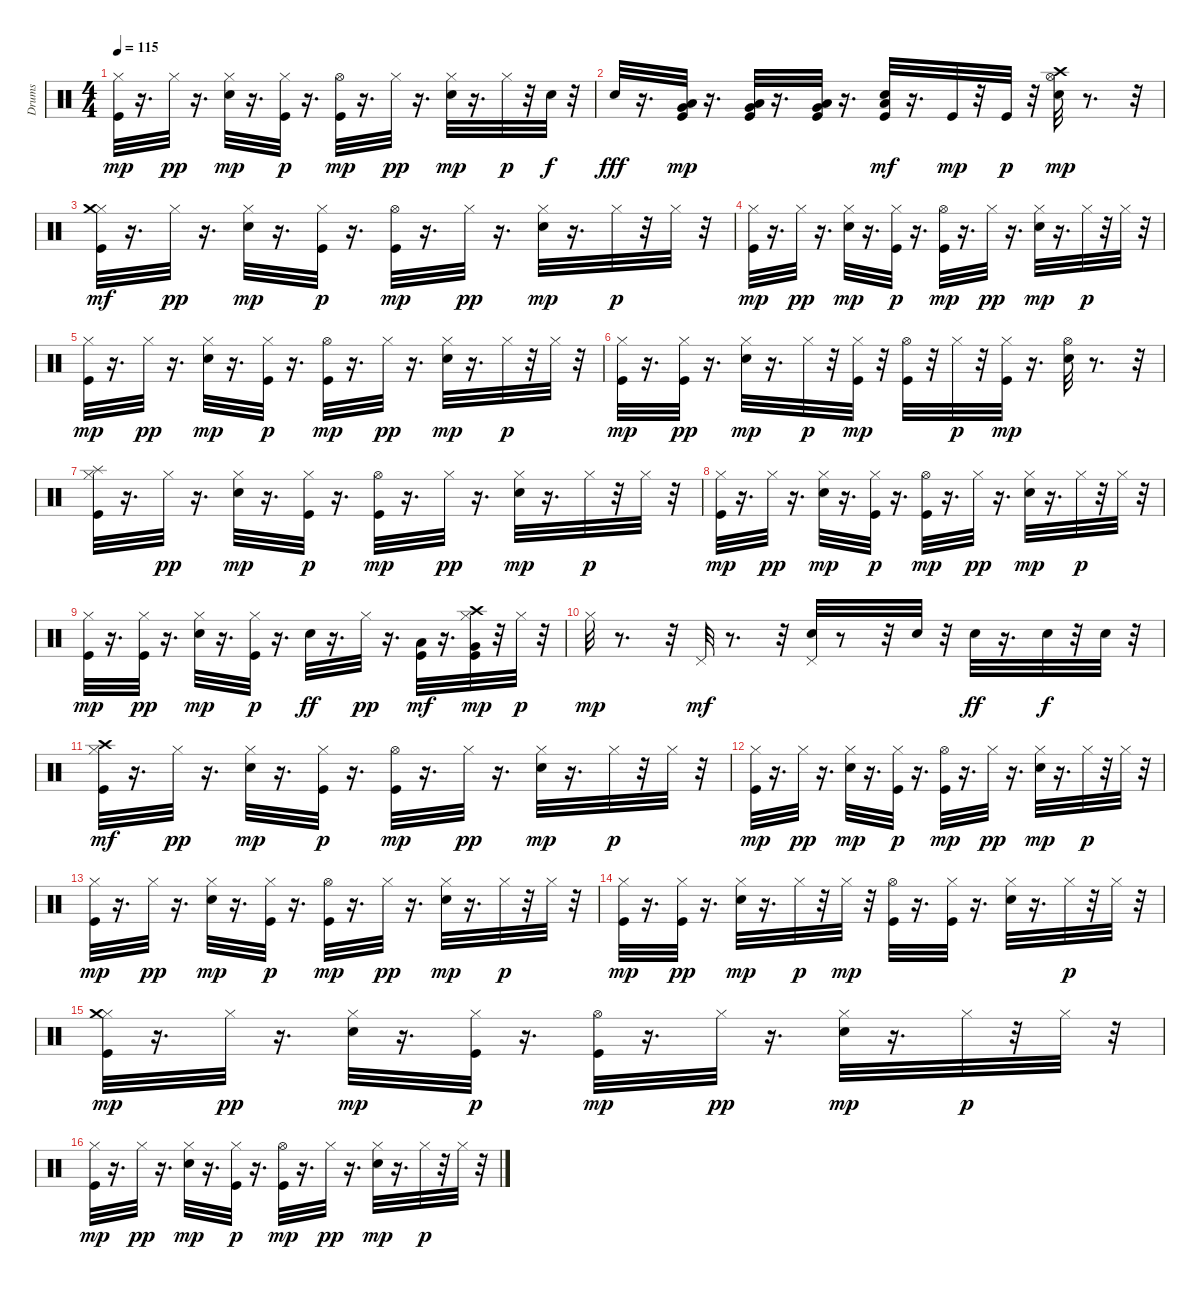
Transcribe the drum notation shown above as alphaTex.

\track ("Drums" "Drums") {instrument percussion}
\staff {score}
\articulation defaults
\ts (4 4)
\tempo 115
\clef neutral
\ks c
("Kick (hit)" "Hi-Hat (closed)").32{dy mp} r.16{d} "Hi-Hat (closed)".32{dy pp} r.16{d} ("Electric Snare (hit)" "Hi-Hat (closed)").32{dy mp} r.16{d} ("Kick (hit)" "Hi-Hat (closed)").32{dy p} r.16{d} ("Kick (hit)" "Hi-Hat (open)").32{dy mp} r.16{d} "Hi-Hat (closed)".32{dy pp} r.16{d} ("Electric Snare (hit)" "Hi-Hat (closed)").32{dy mp} r.16{d} "Hi-Hat (closed)".32{dy p} r.32 "Electric Snare (hit)".32{dy f} r.32 |
"Electric Snare (hit)".32{dy fff} r.16{d} ("Kick (hit)" "Very Low Tom (hit)" "Low Tom (hit)").32{dy mp} r.16{d} ("Kick (hit)" "Very Low Tom (hit)" "Low Tom (hit)").32 r.16{d} ("Kick (hit)" "Very Low Tom (hit)" "Low Tom (hit)").32 r.16{d} ("Kick (hit)" "Electric Snare (hit)" "Low Tom (hit)").32{dy mf} r.16{d} "Kick (hit)".32{dy mp} r.32 "Kick (hit)".32{dy p} r.32 ("Electric Snare (hit)" "Hi-Hat (open)" "Crash high (hit)").32{dy mp} r.8{d} r.32 |
("Kick (hit)" "Hi-Hat (closed)" "Crash medium (hit)").32{dy mf} r.16{d} "Hi-Hat (closed)".32{dy pp} r.16{d} ("Electric Snare (hit)" "Hi-Hat (closed)").32{dy mp} r.16{d} ("Kick (hit)" "Hi-Hat (closed)").32{dy p} r.16{d} ("Kick (hit)" "Hi-Hat (open)").32{dy mp} r.16{d} "Hi-Hat (closed)".32{dy pp} r.16{d} ("Electric Snare (hit)" "Hi-Hat (closed)").32{dy mp} r.16{d} "Hi-Hat (closed)".32{dy p} r.32 "Hi-Hat (closed)".32 r.32 |
("Kick (hit)" "Hi-Hat (closed)").32{dy mp} r.16{d} "Hi-Hat (closed)".32{dy pp} r.16{d} ("Electric Snare (hit)" "Hi-Hat (closed)").32{dy mp} r.16{d} ("Kick (hit)" "Hi-Hat (closed)").32{dy p} r.16{d} ("Kick (hit)" "Hi-Hat (open)").32{dy mp} r.16{d} "Hi-Hat (closed)".32{dy pp} r.16{d} ("Electric Snare (hit)" "Hi-Hat (closed)").32{dy mp} r.16{d} "Hi-Hat (closed)".32{dy p} r.32 "Hi-Hat (closed)".32 r.32 |
("Kick (hit)" "Hi-Hat (closed)").32{dy mp} r.16{d} "Hi-Hat (closed)".32{dy pp} r.16{d} ("Electric Snare (hit)" "Hi-Hat (closed)").32{dy mp} r.16{d} ("Kick (hit)" "Hi-Hat (closed)").32{dy p} r.16{d} ("Kick (hit)" "Hi-Hat (open)").32{dy mp} r.16{d} "Hi-Hat (closed)".32{dy pp} r.16{d} ("Electric Snare (hit)" "Hi-Hat (closed)").32{dy mp} r.16{d} "Hi-Hat (closed)".32{dy p} r.32 "Hi-Hat (closed)".32 r.32 |
("Kick (hit)" "Hi-Hat (closed)").32{dy mp} r.16{d} ("Kick (hit)" "Hi-Hat (closed)").32{dy pp} r.16{d} ("Electric Snare (hit)" "Hi-Hat (closed)").32{dy mp} r.16{d} "Hi-Hat (closed)".32{dy p} r.32 ("Kick (hit)" "Hi-Hat (closed)").32{dy mp} r.32 ("Kick (hit)" "Hi-Hat (open)").32 r.32 "Hi-Hat (closed)".32{dy p} r.32 ("Kick (hit)" "Hi-Hat (closed)").32{dy mp} r.16{d} ("Electric Snare (hit)" "Hi-Hat (open)").32 r.8{d} r.32 |
("Kick (hit)" "Hi-Hat (closed)" "Splash (hit)").32 r.16{d} "Hi-Hat (closed)".32{dy pp} r.16{d} ("Electric Snare (hit)" "Hi-Hat (closed)").32{dy mp} r.16{d} ("Kick (hit)" "Hi-Hat (closed)").32{dy p} r.16{d} ("Kick (hit)" "Hi-Hat (open)").32{dy mp} r.16{d} "Hi-Hat (closed)".32{dy pp} r.16{d} ("Electric Snare (hit)" "Hi-Hat (closed)").32{dy mp} r.16{d} "Hi-Hat (closed)".32{dy p} r.32 "Hi-Hat (closed)".32 r.32 |
("Kick (hit)" "Hi-Hat (closed)").32{dy mp} r.16{d} "Hi-Hat (closed)".32{dy pp} r.16{d} ("Electric Snare (hit)" "Hi-Hat (closed)").32{dy mp} r.16{d} ("Kick (hit)" "Hi-Hat (closed)").32{dy p} r.16{d} ("Kick (hit)" "Hi-Hat (open)").32{dy mp} r.16{d} "Hi-Hat (closed)".32{dy pp} r.16{d} ("Electric Snare (hit)" "Hi-Hat (closed)").32{dy mp} r.16{d} "Hi-Hat (closed)".32{dy p} r.32 "Hi-Hat (closed)".32 r.32 |
("Kick (hit)" "Hi-Hat (closed)").32{dy mp} r.16{d} ("Kick (hit)" "Hi-Hat (closed)").32{dy pp} r.16{d} ("Electric Snare (hit)" "Hi-Hat (closed)").32{dy mp} r.16{d} ("Kick (hit)" "Hi-Hat (closed)").32{dy p} r.16{d} "Electric Snare (hit)".32{dy ff} r.16{d} "Hi-Hat (closed)".32{dy pp} r.16{d} ("Kick (hit)" "Low Tom (hit)").32{dy mf} r.16{d} ("Kick (hit)" "Hi-Hat (closed)" "Very Low Tom (hit)" "Crash high (hit)").32{dy mp} r.32 "Hi-Hat (closed)".32{dy p} r.32 |
"Hi-Hat (closed)".32{dy mp} r.8{d} r.32 "Pedal Hi-Hat (hit)".32{dy mf} r.8{d} r.32 ("Electric Snare (hit)" "Pedal Hi-Hat (hit)").32 r.8 r.32 "Electric Snare (hit)".32 r.32 "Electric Snare (hit)".32{dy ff} r.16{d} "Electric Snare (hit)".32{dy f} r.32 "Electric Snare (hit)".32 r.32 |
("Kick (hit)" "Hi-Hat (closed)" "Crash high (hit)").32{dy mf} r.16{d} "Hi-Hat (closed)".32{dy pp} r.16{d} ("Electric Snare (hit)" "Hi-Hat (closed)").32{dy mp} r.16{d} ("Kick (hit)" "Hi-Hat (closed)").32{dy p} r.16{d} ("Kick (hit)" "Hi-Hat (open)").32{dy mp} r.16{d} "Hi-Hat (closed)".32{dy pp} r.16{d} ("Electric Snare (hit)" "Hi-Hat (closed)").32{dy mp} r.16{d} "Hi-Hat (closed)".32{dy p} r.32 "Hi-Hat (closed)".32 r.32 |
("Kick (hit)" "Hi-Hat (closed)").32{dy mp} r.16{d} "Hi-Hat (closed)".32{dy pp} r.16{d} ("Electric Snare (hit)" "Hi-Hat (closed)").32{dy mp} r.16{d} ("Kick (hit)" "Hi-Hat (closed)").32{dy p} r.16{d} ("Kick (hit)" "Hi-Hat (open)").32{dy mp} r.16{d} "Hi-Hat (closed)".32{dy pp} r.16{d} ("Electric Snare (hit)" "Hi-Hat (closed)").32{dy mp} r.16{d} "Hi-Hat (closed)".32{dy p} r.32 "Hi-Hat (closed)".32 r.32 |
("Kick (hit)" "Hi-Hat (closed)").32{dy mp} r.16{d} "Hi-Hat (closed)".32{dy pp} r.16{d} ("Electric Snare (hit)" "Hi-Hat (closed)").32{dy mp} r.16{d} ("Kick (hit)" "Hi-Hat (closed)").32{dy p} r.16{d} ("Kick (hit)" "Hi-Hat (open)").32{dy mp} r.16{d} "Hi-Hat (closed)".32{dy pp} r.16{d} ("Electric Snare (hit)" "Hi-Hat (closed)").32{dy mp} r.16{d} "Hi-Hat (closed)".32{dy p} r.32 "Hi-Hat (closed)".32 r.32 |
("Kick (hit)" "Hi-Hat (closed)").32{dy mp} r.16{d} ("Kick (hit)" "Hi-Hat (closed)").32{dy pp} r.16{d} ("Electric Snare (hit)" "Hi-Hat (closed)").32{dy mp} r.16{d} "Hi-Hat (closed)".32{dy p} r.32 "Hi-Hat (closed)".32{dy mp} r.32 ("Kick (hit)" "Hi-Hat (open)").32 r.16{d} ("Kick (hit)" "Hi-Hat (closed)").32 r.16{d} ("Electric Snare (hit)" "Hi-Hat (closed)").32 r.16{d} "Hi-Hat (closed)".32{dy p} r.32 "Hi-Hat (closed)".32 r.32 |
("Kick (hit)" "Hi-Hat (closed)" "Crash medium (hit)").32{dy mp} r.16{d} "Hi-Hat (closed)".32{dy pp} r.16{d} ("Electric Snare (hit)" "Hi-Hat (closed)").32{dy mp} r.16{d} ("Kick (hit)" "Hi-Hat (closed)").32{dy p} r.16{d} ("Kick (hit)" "Hi-Hat (open)").32{dy mp} r.16{d} "Hi-Hat (closed)".32{dy pp} r.16{d} ("Electric Snare (hit)" "Hi-Hat (closed)").32{dy mp} r.16{d} "Hi-Hat (closed)".32{dy p} r.32 "Hi-Hat (closed)".32 r.32 |
("Kick (hit)" "Hi-Hat (closed)").32{dy mp} r.16{d} "Hi-Hat (closed)".32{dy pp} r.16{d} ("Electric Snare (hit)" "Hi-Hat (closed)").32{dy mp} r.16{d} ("Kick (hit)" "Hi-Hat (closed)").32{dy p} r.16{d} ("Kick (hit)" "Hi-Hat (open)").32{dy mp} r.16{d} "Hi-Hat (closed)".32{dy pp} r.16{d} ("Electric Snare (hit)" "Hi-Hat (closed)").32{dy mp} r.16{d} "Hi-Hat (closed)".32{dy p} r.32 "Hi-Hat (closed)".32 r.32
